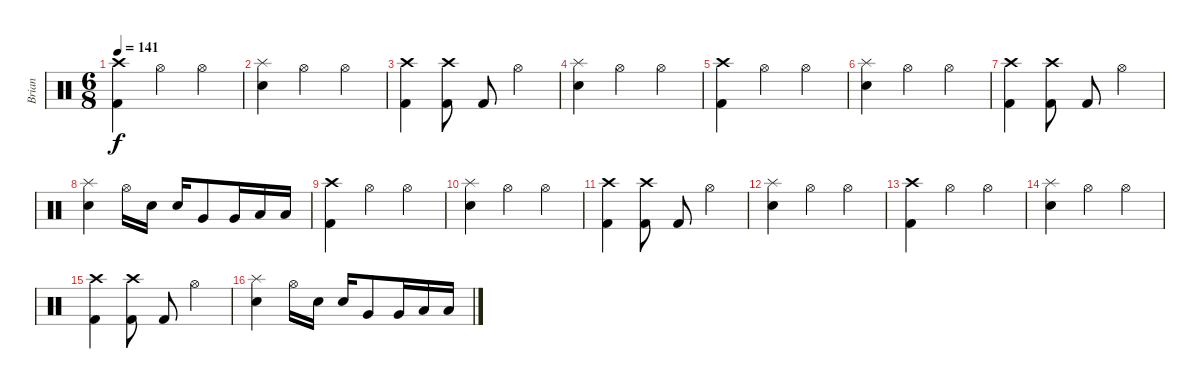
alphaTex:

\track ("Brian" "Brian") {instrument percussion}
\staff {score}
\articulation defaults
\ts (6 8)
\tempo 141
\clef neutral
\ks c
("Crash high (hit)" "Kick (hit) 2").4{dy f} "Hi-Hat (open)".4 "Hi-Hat (open)".4 |
("Splash (hit)" "Electric Snare (hit)").4 "Hi-Hat (open)".4 "Hi-Hat (open)".4 |
("Crash high (hit)" "Kick (hit) 2").4 ("Crash high (hit)" "Kick (hit) 2").8 "Kick (hit) 2".8 "Hi-Hat (open)".4 |
("Splash (hit)" "Electric Snare (hit)").4 "Hi-Hat (open)".4 "Hi-Hat (open)".4 |
("Crash high (hit)" "Kick (hit) 2").4 "Hi-Hat (open)".4 "Hi-Hat (open)".4 |
("Splash (hit)" "Electric Snare (hit)").4 "Hi-Hat (open)".4 "Hi-Hat (open)".4 |
("Crash high (hit)" "Kick (hit) 2").4 ("Crash high (hit)" "Kick (hit) 2").8 "Kick (hit) 2".8 "Hi-Hat (open)".4 |
("Splash (hit)" "Electric Snare (hit)").4 "Hi-Hat (open)".16 "Electric Snare (hit)".16 "Electric Snare (hit)".16 "Very Low Tom (hit)".8 "Very Low Tom (hit)".16 "Low Floor Tom (hit)".16 "Low Floor Tom (hit)".16 |
("Crash high (hit)" "Kick (hit) 2").4 "Hi-Hat (open)".4 "Hi-Hat (open)".4 |
("Splash (hit)" "Electric Snare (hit)").4 "Hi-Hat (open)".4 "Hi-Hat (open)".4 |
("Crash high (hit)" "Kick (hit) 2").4 ("Crash high (hit)" "Kick (hit) 2").8 "Kick (hit) 2".8 "Hi-Hat (open)".4 |
("Splash (hit)" "Electric Snare (hit)").4 "Hi-Hat (open)".4 "Hi-Hat (open)".4 |
("Crash high (hit)" "Kick (hit) 2").4 "Hi-Hat (open)".4 "Hi-Hat (open)".4 |
("Splash (hit)" "Electric Snare (hit)").4 "Hi-Hat (open)".4 "Hi-Hat (open)".4 |
("Crash high (hit)" "Kick (hit) 2").4 ("Crash high (hit)" "Kick (hit) 2").8 "Kick (hit) 2".8 "Hi-Hat (open)".4 |
("Splash (hit)" "Electric Snare (hit)").4 "Hi-Hat (open)".16 "Electric Snare (hit)".16 "Electric Snare (hit)".16 "Very Low Tom (hit)".8 "Very Low Tom (hit)".16 "Low Floor Tom (hit)".16 "Low Floor Tom (hit)".16
